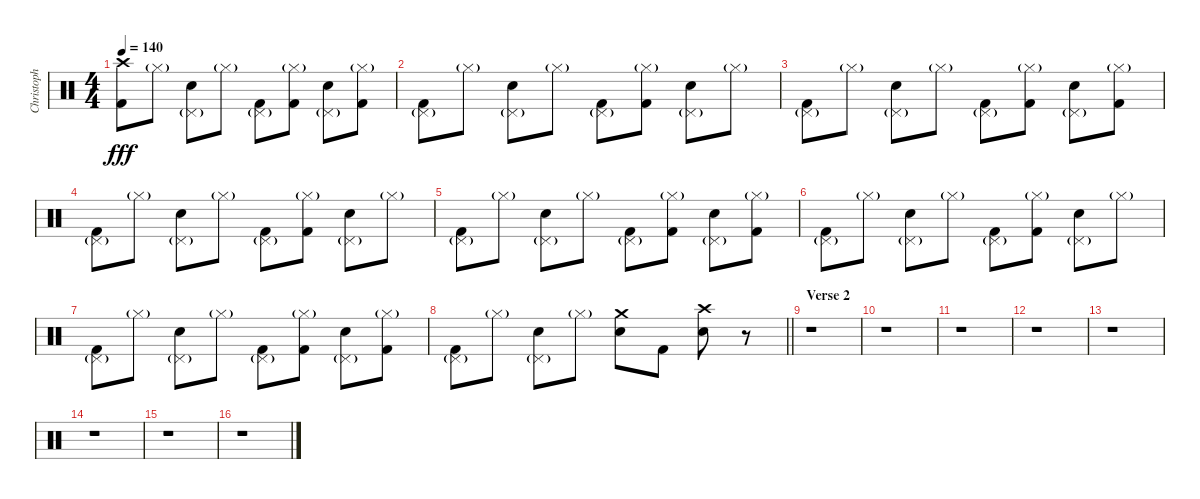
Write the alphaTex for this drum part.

\track ("Christoph" "Christoph") {instrument percussion}
\staff {score}
\articulation defaults
\ts (4 4)
\tempo 140
\clef neutral
\ks c
("Crash high (hit)" "Kick (hit) 2").8{dy fff} "Hi-Hat (closed)"{g}.8 ("Pedal Hi-Hat (hit)"{g} "Electric Snare (hit)").8 "Hi-Hat (closed)"{g}.8 ("Pedal Hi-Hat (hit)"{g} "Kick (hit) 2").8 ("Hi-Hat (closed)"{g} "Kick (hit) 2").8 ("Pedal Hi-Hat (hit)"{g} "Electric Snare (hit)").8 ("Hi-Hat (closed)"{g} "Kick (hit) 2").8 |
("Pedal Hi-Hat (hit)"{g} "Kick (hit) 2").8 "Hi-Hat (closed)"{g}.8 ("Pedal Hi-Hat (hit)"{g} "Electric Snare (hit)").8 "Hi-Hat (closed)"{g}.8 ("Pedal Hi-Hat (hit)"{g} "Kick (hit) 2").8 ("Hi-Hat (closed)"{g} "Kick (hit) 2").8 ("Pedal Hi-Hat (hit)"{g} "Electric Snare (hit)").8 "Hi-Hat (closed)"{g}.8 |
("Pedal Hi-Hat (hit)"{g} "Kick (hit) 2").8 "Hi-Hat (closed)"{g}.8 ("Pedal Hi-Hat (hit)"{g} "Electric Snare (hit)").8 "Hi-Hat (closed)"{g}.8 ("Pedal Hi-Hat (hit)"{g} "Kick (hit) 2").8 ("Hi-Hat (closed)"{g} "Kick (hit) 2").8 ("Pedal Hi-Hat (hit)"{g} "Electric Snare (hit)").8 ("Hi-Hat (closed)"{g} "Kick (hit) 2").8 |
("Pedal Hi-Hat (hit)"{g} "Kick (hit) 2").8 "Hi-Hat (closed)"{g}.8 ("Pedal Hi-Hat (hit)"{g} "Electric Snare (hit)").8 "Hi-Hat (closed)"{g}.8 ("Pedal Hi-Hat (hit)"{g} "Kick (hit) 2").8 ("Hi-Hat (closed)"{g} "Kick (hit) 2").8 ("Pedal Hi-Hat (hit)"{g} "Electric Snare (hit)").8 "Hi-Hat (closed)"{g}.8 |
("Pedal Hi-Hat (hit)"{g} "Kick (hit) 2").8 "Hi-Hat (closed)"{g}.8 ("Pedal Hi-Hat (hit)"{g} "Electric Snare (hit)").8 "Hi-Hat (closed)"{g}.8 ("Pedal Hi-Hat (hit)"{g} "Kick (hit) 2").8 ("Hi-Hat (closed)"{g} "Kick (hit) 2").8 ("Pedal Hi-Hat (hit)"{g} "Electric Snare (hit)").8 ("Hi-Hat (closed)"{g} "Kick (hit) 2").8 |
("Pedal Hi-Hat (hit)"{g} "Kick (hit) 2").8 "Hi-Hat (closed)"{g}.8 ("Pedal Hi-Hat (hit)"{g} "Electric Snare (hit)").8 "Hi-Hat (closed)"{g}.8 ("Pedal Hi-Hat (hit)"{g} "Kick (hit) 2").8 ("Hi-Hat (closed)"{g} "Kick (hit) 2").8 ("Pedal Hi-Hat (hit)"{g} "Electric Snare (hit)").8 "Hi-Hat (closed)"{g}.8 |
("Pedal Hi-Hat (hit)"{g} "Kick (hit) 2").8 "Hi-Hat (closed)"{g}.8 ("Pedal Hi-Hat (hit)"{g} "Electric Snare (hit)").8 "Hi-Hat (closed)"{g}.8 ("Pedal Hi-Hat (hit)"{g} "Kick (hit) 2").8 ("Hi-Hat (closed)"{g} "Kick (hit) 2").8 ("Pedal Hi-Hat (hit)"{g} "Electric Snare (hit)").8 ("Hi-Hat (closed)"{g} "Kick (hit) 2").8 |
\barLineRight lightlight
("Pedal Hi-Hat (hit)"{g} "Kick (hit) 2").8 "Hi-Hat (closed)"{g}.8 ("Pedal Hi-Hat (hit)"{g} "Electric Snare (hit)").8 "Hi-Hat (closed)"{g}.8 ("Crash medium (hit)" "Electric Snare (hit)").8 "Kick (hit) 2".8 ("Crash high (hit)" "Electric Snare (hit)").8 r.8 |
\section ("" "Verse 2")
r.1 |
r.1 |
r.1 |
r.1 |
r.1 |
r.1 |
r.1 |
r.1
